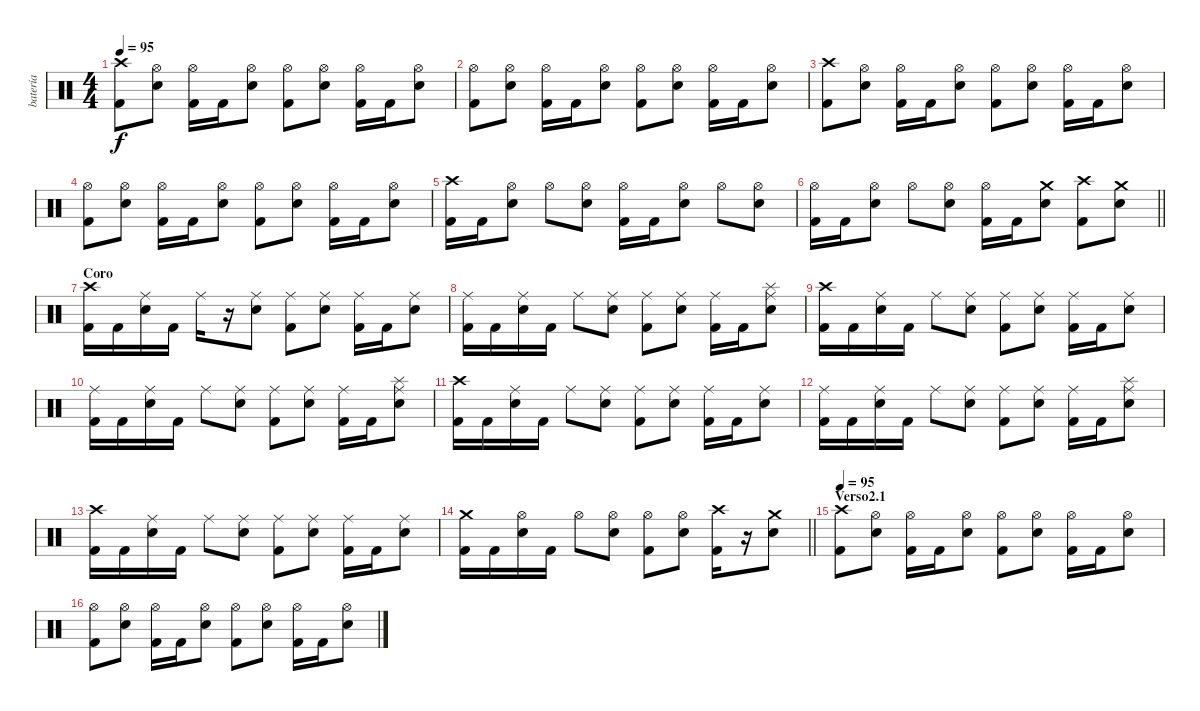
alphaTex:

\track ("batería" "batería") {instrument percussion}
\staff {score}
\articulation defaults
\ts (4 4)
\tempo 95
\clef neutral
\ks c
("Crash high (hit)" "Kick (hit) 2").8{dy f} ("Hi-Hat (open)" "Electric Snare (hit)").8 ("Hi-Hat (open)" "Kick (hit) 2").16 "Kick (hit) 2".16 ("Hi-Hat (open)" "Electric Snare (hit)").8 ("Hi-Hat (open)" "Kick (hit) 2").8 ("Hi-Hat (open)" "Electric Snare (hit)").8 ("Hi-Hat (open)" "Kick (hit) 2").16 "Kick (hit) 2".16 ("Hi-Hat (open)" "Electric Snare (hit)").8 |
("Hi-Hat (open)" "Kick (hit) 2").8 ("Hi-Hat (open)" "Electric Snare (hit)").8 ("Hi-Hat (open)" "Kick (hit) 2").16 "Kick (hit) 2".16 ("Hi-Hat (open)" "Electric Snare (hit)").8 ("Hi-Hat (open)" "Kick (hit) 2").8 ("Hi-Hat (open)" "Electric Snare (hit)").8 ("Hi-Hat (open)" "Kick (hit) 2").16 "Kick (hit) 2".16 ("Hi-Hat (open)" "Electric Snare (hit)").8 |
("Crash high (hit)" "Kick (hit) 2").8 ("Hi-Hat (open)" "Electric Snare (hit)").8 ("Hi-Hat (open)" "Kick (hit) 2").16 "Kick (hit) 2".16 ("Hi-Hat (open)" "Electric Snare (hit)").8 ("Hi-Hat (open)" "Kick (hit) 2").8 ("Hi-Hat (open)" "Electric Snare (hit)").8 ("Hi-Hat (open)" "Kick (hit) 2").16 "Kick (hit) 2".16 ("Hi-Hat (open)" "Electric Snare (hit)").8 |
("Hi-Hat (open)" "Kick (hit) 2").8 ("Hi-Hat (open)" "Electric Snare (hit)").8 ("Hi-Hat (open)" "Kick (hit) 2").16 "Kick (hit) 2".16 ("Hi-Hat (open)" "Electric Snare (hit)").8 ("Hi-Hat (open)" "Kick (hit) 2").8 ("Hi-Hat (open)" "Electric Snare (hit)").8 ("Hi-Hat (open)" "Kick (hit) 2").16 "Kick (hit) 2".16 ("Hi-Hat (open)" "Electric Snare (hit)").8 |
("Crash high (hit)" "Kick (hit) 2").16 "Kick (hit) 2".16 ("Hi-Hat (open)" "Electric Snare (hit)").8 "Hi-Hat (open)".8 ("Hi-Hat (open)" "Electric Snare (hit)").8 ("Hi-Hat (open)" "Kick (hit) 2").16 "Kick (hit) 2".16 ("Hi-Hat (open)" "Electric Snare (hit)").8 "Hi-Hat (open)".8 ("Hi-Hat (open)" "Electric Snare (hit)").8 |
\barLineRight lightlight
("Hi-Hat (open)" "Kick (hit) 2").16 "Kick (hit) 2".16 ("Hi-Hat (open)" "Electric Snare (hit)").8 "Hi-Hat (open)".8 ("Hi-Hat (open)" "Electric Snare (hit)").8 ("Hi-Hat (open)" "Kick (hit) 2").16 "Kick (hit) 2".16 ("Crash medium (hit)" "Electric Snare (hit)").8 ("Crash high (hit)" "Kick (hit) 2").8 ("Crash medium (hit)" "Electric Snare (hit)").8 |
\section ("" "Coro")
("Crash high (hit)" "Kick (hit) 2").16 "Kick (hit) 2".16 ("Ride (middle)" "Electric Snare (hit)").16 "Kick (hit) 2".16 "Ride (middle)".16 r.16 ("Ride (middle)" "Electric Snare (hit)").8 ("Ride (middle)" "Kick (hit) 2").8 ("Ride (middle)" "Electric Snare (hit)").8 ("Ride (middle)" "Kick (hit) 2").16 "Kick (hit) 2".16 ("Ride (middle)" "Electric Snare (hit)").8 |
("Ride (middle)" "Kick (hit) 2").16 "Kick (hit) 2".16 ("Ride (middle)" "Electric Snare (hit)").16 "Kick (hit) 2".16 "Ride (middle)".8 ("Ride (middle)" "Electric Snare (hit)").8 ("Ride (middle)" "Kick (hit) 2").8 ("Ride (middle)" "Electric Snare (hit)").8 ("Ride (middle)" "Kick (hit) 2").16 "Kick (hit) 2".16 ("Splash (hit)" "Ride (middle)" "Electric Snare (hit)").8 |
("Crash high (hit)" "Kick (hit) 2").16 "Kick (hit) 2".16 ("Ride (middle)" "Electric Snare (hit)").16 "Kick (hit) 2".16 "Ride (middle)".8 ("Ride (middle)" "Electric Snare (hit)").8 ("Ride (middle)" "Kick (hit) 2").8 ("Ride (middle)" "Electric Snare (hit)").8 ("Ride (middle)" "Kick (hit) 2").16 "Kick (hit) 2".16 ("Ride (middle)" "Electric Snare (hit)").8 |
("Ride (middle)" "Kick (hit) 2").16 "Kick (hit) 2".16 ("Ride (middle)" "Electric Snare (hit)").16 "Kick (hit) 2".16 "Ride (middle)".8 ("Ride (middle)" "Electric Snare (hit)").8 ("Ride (middle)" "Kick (hit) 2").8 ("Ride (middle)" "Electric Snare (hit)").8 ("Ride (middle)" "Kick (hit) 2").16 "Kick (hit) 2".16 ("Splash (hit)" "Ride (middle)" "Electric Snare (hit)").8 |
("Crash high (hit)" "Kick (hit) 2").16 "Kick (hit) 2".16 ("Ride (middle)" "Electric Snare (hit)").16 "Kick (hit) 2".16 "Ride (middle)".8 ("Ride (middle)" "Electric Snare (hit)").8 ("Ride (middle)" "Kick (hit) 2").8 ("Ride (middle)" "Electric Snare (hit)").8 ("Ride (middle)" "Kick (hit) 2").16 "Kick (hit) 2".16 ("Ride (middle)" "Electric Snare (hit)").8 |
("Ride (middle)" "Kick (hit) 2").16 "Kick (hit) 2".16 ("Ride (middle)" "Electric Snare (hit)").16 "Kick (hit) 2".16 "Ride (middle)".8 ("Ride (middle)" "Electric Snare (hit)").8 ("Ride (middle)" "Kick (hit) 2").8 ("Ride (middle)" "Electric Snare (hit)").8 ("Ride (middle)" "Kick (hit) 2").16 "Kick (hit) 2".16 ("Splash (hit)" "Ride (middle)" "Electric Snare (hit)").8 |
("Crash high (hit)" "Kick (hit) 2").16 "Kick (hit) 2".16 ("Ride (middle)" "Electric Snare (hit)").16 "Kick (hit) 2".16 "Ride (middle)".8 ("Ride (middle)" "Electric Snare (hit)").8 ("Ride (middle)" "Kick (hit) 2").8 ("Ride (middle)" "Electric Snare (hit)").8 ("Ride (middle)" "Kick (hit) 2").16 "Kick (hit) 2".16 ("Ride (middle)" "Electric Snare (hit)").8 |
\barLineRight lightlight
("Crash medium (hit)" "Kick (hit) 2").16 "Kick (hit) 2".16 ("Hi-Hat (open)" "Electric Snare (hit)").16 "Kick (hit) 2".16 "Hi-Hat (open)".8 ("Hi-Hat (open)" "Electric Snare (hit)").8 ("Hi-Hat (open)" "Kick (hit) 2").8 ("Hi-Hat (open)" "Electric Snare (hit)").8 ("Crash high (hit)" "Kick (hit) 2").16 r.16 ("Crash medium (hit)" "Electric Snare (hit)").8 |
\section ("" "Verso2.1")
\tempo 95
("Crash high (hit)" "Kick (hit) 2").8 ("Hi-Hat (open)" "Electric Snare (hit)").8 ("Hi-Hat (open)" "Kick (hit) 2").16 "Kick (hit) 2".16 ("Hi-Hat (open)" "Electric Snare (hit)").8 ("Hi-Hat (open)" "Kick (hit) 2").8 ("Hi-Hat (open)" "Electric Snare (hit)").8 ("Hi-Hat (open)" "Kick (hit) 2").16 "Kick (hit) 2".16 ("Hi-Hat (open)" "Electric Snare (hit)").8 |
("Hi-Hat (open)" "Kick (hit) 2").8 ("Hi-Hat (open)" "Electric Snare (hit)").8 ("Hi-Hat (open)" "Kick (hit) 2").16 "Kick (hit) 2".16 ("Hi-Hat (open)" "Electric Snare (hit)").8 ("Hi-Hat (open)" "Kick (hit) 2").8 ("Hi-Hat (open)" "Electric Snare (hit)").8 ("Hi-Hat (open)" "Kick (hit) 2").16 "Kick (hit) 2".16 ("Hi-Hat (open)" "Electric Snare (hit)").8
